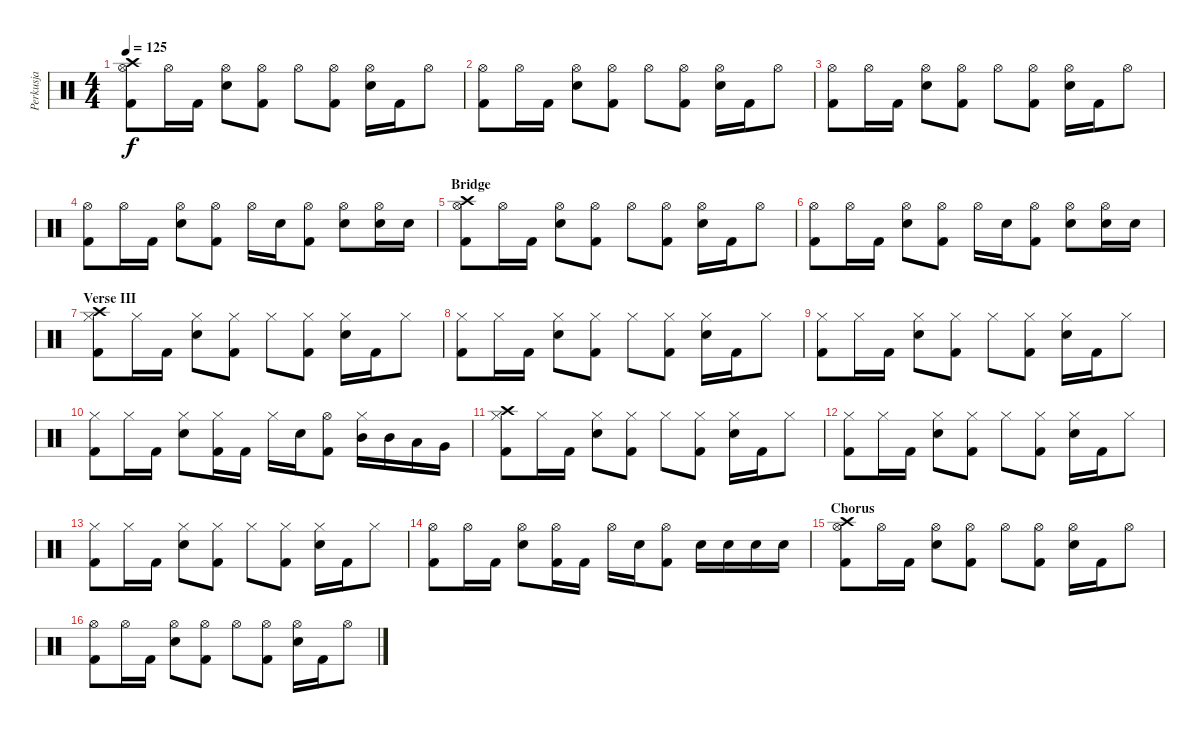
\track ("Perkusja" "Perkusja") {instrument percussion}
\staff {score}
\articulation defaults
\ts (4 4)
\tempo 125
\clef neutral
\ks c
("Hi-Hat (open)" "Kick (hit) 2" "Crash high (hit)").8{dy f} "Hi-Hat (open)".16 "Kick (hit) 2".16 ("Hi-Hat (open)" "Electric Snare (hit)").8 ("Hi-Hat (open)" "Kick (hit) 2").8 "Hi-Hat (open)".8 ("Hi-Hat (open)" "Kick (hit) 2").8 ("Hi-Hat (open)" "Electric Snare (hit)").16 "Kick (hit) 2".16 "Hi-Hat (open)".8 |
("Hi-Hat (open)" "Kick (hit) 2").8 "Hi-Hat (open)".16 "Kick (hit) 2".16 ("Hi-Hat (open)" "Electric Snare (hit)").8 ("Hi-Hat (open)" "Kick (hit) 2").8 "Hi-Hat (open)".8 ("Hi-Hat (open)" "Kick (hit) 2").8 ("Hi-Hat (open)" "Electric Snare (hit)").16 "Kick (hit) 2".16 "Hi-Hat (open)".8 |
("Hi-Hat (open)" "Kick (hit) 2").8 "Hi-Hat (open)".16 "Kick (hit) 2".16 ("Hi-Hat (open)" "Electric Snare (hit)").8 ("Hi-Hat (open)" "Kick (hit) 2").8 "Hi-Hat (open)".8 ("Hi-Hat (open)" "Kick (hit) 2").8 ("Hi-Hat (open)" "Electric Snare (hit)").16 "Kick (hit) 2".16 "Hi-Hat (open)".8 |
("Hi-Hat (open)" "Kick (hit) 2").8 "Hi-Hat (open)".16 "Kick (hit) 2".16 ("Hi-Hat (open)" "Electric Snare (hit)").8 ("Hi-Hat (open)" "Kick (hit) 2").8 "Hi-Hat (open)".16 "Electric Snare (hit)".16 ("Hi-Hat (open)" "Kick (hit) 2").8 ("Hi-Hat (open)" "Electric Snare (hit)").8 ("Hi-Hat (open)" "Electric Snare (hit)").16 "Electric Snare (hit)".16 |
\section ("" "Bridge")
("Hi-Hat (open)" "Kick (hit) 2" "Crash high (hit)").8 "Hi-Hat (open)".16 "Kick (hit) 2".16 ("Hi-Hat (open)" "Electric Snare (hit)").8 ("Hi-Hat (open)" "Kick (hit) 2").8 "Hi-Hat (open)".8 ("Hi-Hat (open)" "Kick (hit) 2").8 ("Hi-Hat (open)" "Electric Snare (hit)").16 "Kick (hit) 2".16 "Hi-Hat (open)".8 |
("Hi-Hat (open)" "Kick (hit) 2").8 "Hi-Hat (open)".16 "Kick (hit) 2".16 ("Hi-Hat (open)" "Electric Snare (hit)").8 ("Hi-Hat (open)" "Kick (hit) 2").8 "Hi-Hat (open)".16 "Electric Snare (hit)".16 ("Hi-Hat (open)" "Kick (hit) 2").8 ("Hi-Hat (open)" "Electric Snare (hit)").8 ("Hi-Hat (open)" "Electric Snare (hit)").16 "Electric Snare (hit)".16 |
\section ("" "Verse III")
("Hi-Hat (closed)" "Kick (hit) 2" "Crash high (hit)").8 "Hi-Hat (closed)".16 "Kick (hit) 2".16 ("Hi-Hat (closed)" "Electric Snare (hit)").8 ("Hi-Hat (closed)" "Kick (hit) 2").8 "Hi-Hat (closed)".8 ("Hi-Hat (closed)" "Kick (hit) 2").8 ("Hi-Hat (closed)" "Electric Snare (hit)").16 "Kick (hit) 2".16 "Hi-Hat (closed)".8 |
("Hi-Hat (closed)" "Kick (hit) 2").8 "Hi-Hat (closed)".16 "Kick (hit) 2".16 ("Hi-Hat (closed)" "Electric Snare (hit)").8 ("Hi-Hat (closed)" "Kick (hit) 2").8 "Hi-Hat (closed)".8 ("Hi-Hat (closed)" "Kick (hit) 2").8 ("Hi-Hat (closed)" "Electric Snare (hit)").16 "Kick (hit) 2".16 "Hi-Hat (closed)".8 |
("Hi-Hat (closed)" "Kick (hit) 2").8 "Hi-Hat (closed)".16 "Kick (hit) 2".16 ("Hi-Hat (closed)" "Electric Snare (hit)").8 ("Hi-Hat (closed)" "Kick (hit) 2").8 "Hi-Hat (closed)".8 ("Hi-Hat (closed)" "Kick (hit) 2").8 ("Hi-Hat (closed)" "Electric Snare (hit)").16 "Kick (hit) 2".16 "Hi-Hat (closed)".8 |
("Hi-Hat (closed)" "Kick (hit) 2").8 "Hi-Hat (closed)".16 "Kick (hit) 2".16 ("Hi-Hat (closed)" "Electric Snare (hit)").8 ("Hi-Hat (closed)" "Kick (hit) 2").16 "Kick (hit) 2".16 "Hi-Hat (closed)".16 "Electric Snare (hit)".16 ("Hi-Hat (open)" "Kick (hit) 2").8 ("Hi-Hat (closed)" "Mid Tom (hit)").16 "Mid Tom (hit)".16 "Low Tom (hit)".16 "Very Low Tom (hit)".16 |
("Hi-Hat (closed)" "Kick (hit) 2" "Crash high (hit)").8 "Hi-Hat (closed)".16 "Kick (hit) 2".16 ("Hi-Hat (closed)" "Electric Snare (hit)").8 ("Hi-Hat (closed)" "Kick (hit) 2").8 "Hi-Hat (closed)".8 ("Hi-Hat (closed)" "Kick (hit) 2").8 ("Hi-Hat (closed)" "Electric Snare (hit)").16 "Kick (hit) 2".16 "Hi-Hat (closed)".8 |
("Hi-Hat (closed)" "Kick (hit) 2").8 "Hi-Hat (closed)".16 "Kick (hit) 2".16 ("Hi-Hat (closed)" "Electric Snare (hit)").8 ("Hi-Hat (closed)" "Kick (hit) 2").8 "Hi-Hat (closed)".8 ("Hi-Hat (closed)" "Kick (hit) 2").8 ("Hi-Hat (closed)" "Electric Snare (hit)").16 "Kick (hit) 2".16 "Hi-Hat (closed)".8 |
("Hi-Hat (closed)" "Kick (hit) 2").8 "Hi-Hat (closed)".16 "Kick (hit) 2".16 ("Hi-Hat (closed)" "Electric Snare (hit)").8 ("Hi-Hat (closed)" "Kick (hit) 2").8 "Hi-Hat (closed)".8 ("Hi-Hat (closed)" "Kick (hit) 2").8 ("Hi-Hat (closed)" "Electric Snare (hit)").16 "Kick (hit) 2".16 "Hi-Hat (closed)".8 |
("Hi-Hat (open)" "Kick (hit) 2").8 "Hi-Hat (open)".16 "Kick (hit) 2".16 ("Hi-Hat (open)" "Electric Snare (hit)").8 ("Hi-Hat (open)" "Kick (hit) 2").16 "Kick (hit) 2".16 "Hi-Hat (open)".16 "Electric Snare (hit)".16 ("Hi-Hat (open)" "Kick (hit) 2").8 "Electric Snare (hit)".16 "Electric Snare (hit)".16 "Electric Snare (hit)".16 "Electric Snare (hit)".16 |
\section ("" "Chorus")
("Hi-Hat (open)" "Kick (hit) 2" "Crash high (hit)").8 "Hi-Hat (open)".16 "Kick (hit) 2".16 ("Hi-Hat (open)" "Electric Snare (hit)").8 ("Hi-Hat (open)" "Kick (hit) 2").8 "Hi-Hat (open)".8 ("Hi-Hat (open)" "Kick (hit) 2").8 ("Hi-Hat (open)" "Electric Snare (hit)").16 "Kick (hit) 2".16 "Hi-Hat (open)".8 |
("Hi-Hat (open)" "Kick (hit) 2").8 "Hi-Hat (open)".16 "Kick (hit) 2".16 ("Hi-Hat (open)" "Electric Snare (hit)").8 ("Hi-Hat (open)" "Kick (hit) 2").8 "Hi-Hat (open)".8 ("Hi-Hat (open)" "Kick (hit) 2").8 ("Hi-Hat (open)" "Electric Snare (hit)").16 "Kick (hit) 2".16 "Hi-Hat (open)".8
